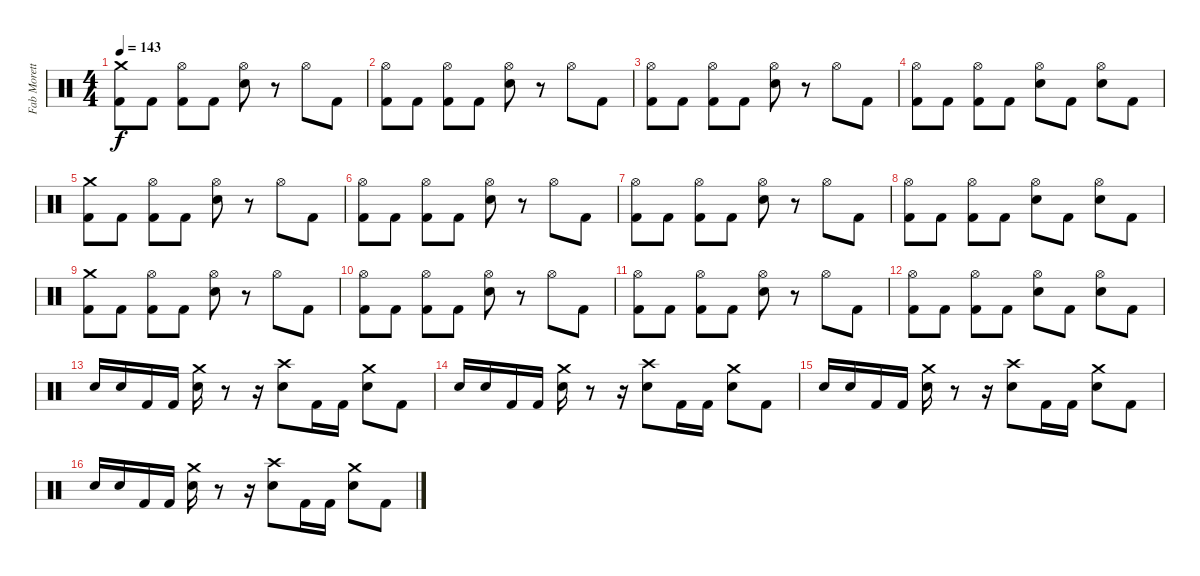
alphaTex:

\track ("Fab Moretti" "Fab Morett") {instrument percussion}
\staff {score}
\articulation defaults
\ts (4 4)
\tempo 143
\clef neutral
\ks c
("Crash medium (hit)" "Kick (hit) 2").8{dy f} "Kick (hit) 2".8 ("Hi-Hat (open)" "Kick (hit) 2").8 "Kick (hit) 2".8 ("Hi-Hat (open)" "Electric Snare (hit)").8 r.8 "Hi-Hat (open)".8 "Kick (hit) 2".8 |
("Hi-Hat (open)" "Kick (hit) 2").8 "Kick (hit) 2".8 ("Hi-Hat (open)" "Kick (hit) 2").8 "Kick (hit) 2".8 ("Hi-Hat (open)" "Electric Snare (hit)").8 r.8 "Hi-Hat (open)".8 "Kick (hit) 2".8 |
("Hi-Hat (open)" "Kick (hit) 2").8 "Kick (hit) 2".8 ("Hi-Hat (open)" "Kick (hit) 2").8 "Kick (hit) 2".8 ("Hi-Hat (open)" "Electric Snare (hit)").8 r.8 "Hi-Hat (open)".8 "Kick (hit) 2".8 |
("Hi-Hat (open)" "Kick (hit) 2").8 "Kick (hit) 2".8 ("Hi-Hat (open)" "Kick (hit) 2").8 "Kick (hit) 2".8 ("Hi-Hat (open)" "Electric Snare (hit)").8 "Kick (hit) 2".8 ("Hi-Hat (open)" "Electric Snare (hit)").8 "Kick (hit) 2".8 |
("Crash medium (hit)" "Kick (hit) 2").8 "Kick (hit) 2".8 ("Hi-Hat (open)" "Kick (hit) 2").8 "Kick (hit) 2".8 ("Hi-Hat (open)" "Electric Snare (hit)").8 r.8 "Hi-Hat (open)".8 "Kick (hit) 2".8 |
("Hi-Hat (open)" "Kick (hit) 2").8 "Kick (hit) 2".8 ("Hi-Hat (open)" "Kick (hit) 2").8 "Kick (hit) 2".8 ("Hi-Hat (open)" "Electric Snare (hit)").8 r.8 "Hi-Hat (open)".8 "Kick (hit) 2".8 |
("Hi-Hat (open)" "Kick (hit) 2").8 "Kick (hit) 2".8 ("Hi-Hat (open)" "Kick (hit) 2").8 "Kick (hit) 2".8 ("Hi-Hat (open)" "Electric Snare (hit)").8 r.8 "Hi-Hat (open)".8 "Kick (hit) 2".8 |
("Hi-Hat (open)" "Kick (hit) 2").8 "Kick (hit) 2".8 ("Hi-Hat (open)" "Kick (hit) 2").8 "Kick (hit) 2".8 ("Hi-Hat (open)" "Electric Snare (hit)").8 "Kick (hit) 2".8 ("Hi-Hat (open)" "Electric Snare (hit)").8 "Kick (hit) 2".8 |
("Crash medium (hit)" "Kick (hit) 2").8 "Kick (hit) 2".8 ("Hi-Hat (open)" "Kick (hit) 2").8 "Kick (hit) 2".8 ("Hi-Hat (open)" "Electric Snare (hit)").8 r.8 "Hi-Hat (open)".8 "Kick (hit) 2".8 |
("Hi-Hat (open)" "Kick (hit) 2").8 "Kick (hit) 2".8 ("Hi-Hat (open)" "Kick (hit) 2").8 "Kick (hit) 2".8 ("Hi-Hat (open)" "Electric Snare (hit)").8 r.8 "Hi-Hat (open)".8 "Kick (hit) 2".8 |
("Hi-Hat (open)" "Kick (hit) 2").8 "Kick (hit) 2".8 ("Hi-Hat (open)" "Kick (hit) 2").8 "Kick (hit) 2".8 ("Hi-Hat (open)" "Electric Snare (hit)").8 r.8 "Hi-Hat (open)".8 "Kick (hit) 2".8 |
("Hi-Hat (open)" "Kick (hit) 2").8 "Kick (hit) 2".8 ("Hi-Hat (open)" "Kick (hit) 2").8 "Kick (hit) 2".8 ("Hi-Hat (open)" "Electric Snare (hit)").8 "Kick (hit) 2".8 ("Hi-Hat (open)" "Electric Snare (hit)").8 "Kick (hit) 2".8 |
"Electric Snare (hit)".16 "Electric Snare (hit)".16 "Kick (hit) 2".16 "Kick (hit) 2".16 ("Crash medium (hit)" "Electric Snare (hit)").16 r.8 r.16 ("Crash high (hit)" "Electric Snare (hit)").8 "Kick (hit) 2".16 "Kick (hit) 2".16 ("Crash medium (hit)" "Electric Snare (hit)").8 "Kick (hit) 2".8 |
"Electric Snare (hit)".16 "Electric Snare (hit)".16 "Kick (hit) 2".16 "Kick (hit) 2".16 ("Crash medium (hit)" "Electric Snare (hit)").16 r.8 r.16 ("Crash high (hit)" "Electric Snare (hit)").8 "Kick (hit) 2".16 "Kick (hit) 2".16 ("Crash medium (hit)" "Electric Snare (hit)").8 "Kick (hit) 2".8 |
"Electric Snare (hit)".16 "Electric Snare (hit)".16 "Kick (hit) 2".16 "Kick (hit) 2".16 ("Crash medium (hit)" "Electric Snare (hit)").16 r.8 r.16 ("Crash high (hit)" "Electric Snare (hit)").8 "Kick (hit) 2".16 "Kick (hit) 2".16 ("Crash medium (hit)" "Electric Snare (hit)").8 "Kick (hit) 2".8 |
"Electric Snare (hit)".16 "Electric Snare (hit)".16 "Kick (hit) 2".16 "Kick (hit) 2".16 ("Crash medium (hit)" "Electric Snare (hit)").16 r.8 r.16 ("Crash high (hit)" "Electric Snare (hit)").8 "Kick (hit) 2".16 "Kick (hit) 2".16 ("Crash medium (hit)" "Electric Snare (hit)").8 "Kick (hit) 2".8
